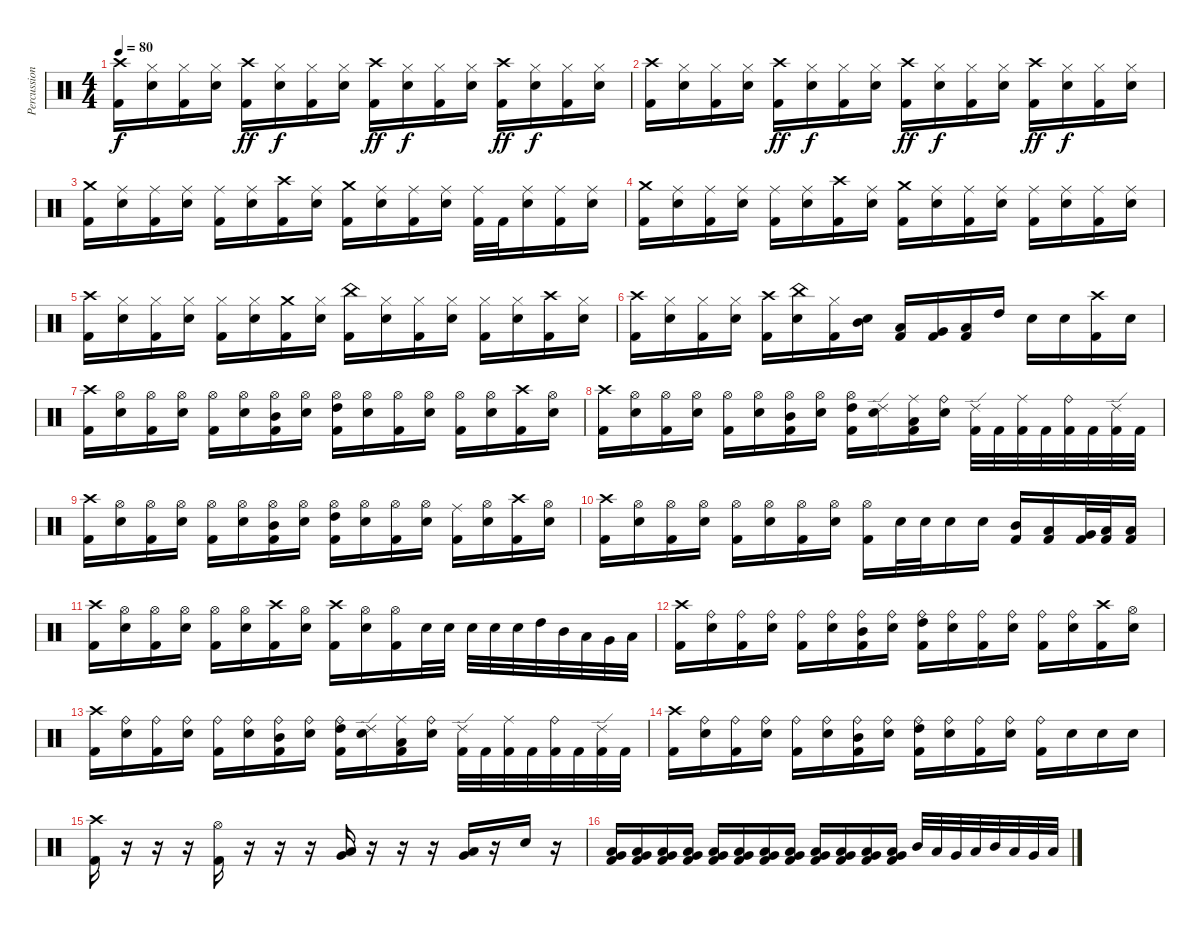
\track ("Percussion" "Percussion") {instrument percussion}
\staff {score}
\articulation defaults
\ts (4 4)
\tempo 80
\clef neutral
\ks c
("Crash high (hit)" "Kick (hit) 2").16{dy f} ("Hi-Hat (closed)" "Snare (hit) 2").16 ("Hi-Hat (closed)" "Kick (hit) 2").16 ("Hi-Hat (closed)" "Snare (hit) 2").16 ("Crash high (hit)" "Kick (hit) 2").16{dy ff} ("Hi-Hat (closed)" "Snare (hit) 2").16{dy f} ("Hi-Hat (closed)" "Kick (hit) 2").16 ("Hi-Hat (closed)" "Snare (hit) 2").16 ("Crash high (hit)" "Kick (hit) 2").16{dy ff} ("Hi-Hat (closed)" "Snare (hit) 2").16{dy f} ("Hi-Hat (closed)" "Kick (hit) 2").16 ("Hi-Hat (closed)" "Snare (hit) 2").16 ("Crash high (hit)" "Kick (hit) 2").16{dy ff} ("Hi-Hat (closed)" "Snare (hit) 2").16{dy f} ("Hi-Hat (closed)" "Kick (hit) 2").16 ("Hi-Hat (closed)" "Snare (hit) 2").16 |
("Crash high (hit)" "Kick (hit) 2").16 ("Hi-Hat (closed)" "Snare (hit) 2").16 ("Hi-Hat (closed)" "Kick (hit) 2").16 ("Hi-Hat (closed)" "Snare (hit) 2").16 ("Crash high (hit)" "Kick (hit) 2").16{dy ff} ("Hi-Hat (closed)" "Snare (hit) 2").16{dy f} ("Hi-Hat (closed)" "Kick (hit) 2").16 ("Hi-Hat (closed)" "Snare (hit) 2").16 ("Crash high (hit)" "Kick (hit) 2").16{dy ff} ("Hi-Hat (closed)" "Snare (hit) 2").16{dy f} ("Hi-Hat (closed)" "Kick (hit) 2").16 ("Hi-Hat (closed)" "Snare (hit) 2").16 ("Crash high (hit)" "Kick (hit) 2").16{dy ff} ("Hi-Hat (closed)" "Snare (hit) 2").16{dy f} ("Hi-Hat (closed)" "Kick (hit) 2").16 ("Hi-Hat (closed)" "Snare (hit) 2").16 |
("Crash medium (hit)" "Kick (hit) 2").16 ("Ride (middle)" "Snare (hit) 2").16 ("Ride (middle)" "Kick (hit) 2").16 ("Ride (middle)" "Snare (hit) 2").16 ("Ride (middle)" "Kick (hit) 2").16 ("Ride (middle)" "Snare (hit) 2").16 ("Crash high (hit)" "Kick (hit) 2").16 ("Ride (middle)" "Snare (hit) 2").16 ("Crash medium (hit)" "Kick (hit) 2").16 ("Ride (middle)" "Snare (hit) 2").16 ("Ride (middle)" "Kick (hit) 2").16 ("Ride (middle)" "Snare (hit) 2").16 ("Ride (middle)" "Kick (hit) 2").32 "Kick (hit) 2".32 ("Ride (middle)" "Snare (hit) 2").16 ("Ride (middle)" "Kick (hit) 2").16 ("Ride (middle)" "Snare (hit) 2").16 |
("Crash medium (hit)" "Kick (hit) 2").16 ("Ride (middle)" "Snare (hit) 2").16 ("Ride (middle)" "Kick (hit) 2").16 ("Ride (middle)" "Snare (hit) 2").16 ("Ride (middle)" "Kick (hit) 2").16 ("Ride (middle)" "Snare (hit) 2").16 ("Crash high (hit)" "Kick (hit) 2").16 ("Ride (middle)" "Snare (hit) 2").16 ("Crash medium (hit)" "Kick (hit) 2").16 ("Ride (middle)" "Snare (hit) 2").16 ("Ride (middle)" "Kick (hit) 2").16 ("Ride (middle)" "Snare (hit) 2").16 ("Ride (middle)" "Kick (hit) 2").16 ("Ride (middle)" "Snare (hit) 2").16 ("Ride (middle)" "Kick (hit) 2").16 ("Ride (middle)" "Snare (hit) 2").16 |
("Crash high (hit)" "Kick (hit) 2").16 ("Hi-Hat (closed)" "Snare (hit) 2").16 ("Hi-Hat (closed)" "Kick (hit) 2").16 ("Hi-Hat (closed)" "Snare (hit) 2").16 ("Hi-Hat (closed)" "Kick (hit) 2").16 ("Hi-Hat (closed)" "Snare (hit) 2").16 ("Crash medium (hit)" "Kick (hit) 2").16 ("Hi-Hat (closed)" "Snare (hit) 2").16 ("China (hit)" "Kick (hit) 2").16 ("Hi-Hat (closed)" "Snare (hit) 2").16 ("Hi-Hat (closed)" "Kick (hit) 2").16 ("Hi-Hat (closed)" "Snare (hit) 2").16 ("Hi-Hat (closed)" "Kick (hit) 2").16 ("Hi-Hat (closed)" "Snare (hit) 2").16 ("Crash high (hit)" "Kick (hit) 2").16 ("Hi-Hat (closed)" "Snare (hit) 2").16 |
("Crash high (hit)" "Kick (hit) 2").16 ("Hi-Hat (closed)" "Snare (hit) 2").16 ("Hi-Hat (closed)" "Kick (hit) 2").16 ("Hi-Hat (closed)" "Snare (hit) 2").16 ("Crash high (hit)" "Kick (hit) 2").16 ("China (hit)" "Snare (hit) 2").16 ("Hi-Hat (closed)" "Kick (hit) 2").16 ("Mid Tom (hit)" "Snare (hit) 2").16 ("Low Tom (hit)" "Kick (hit) 2").16 ("Very Low Tom (hit)" "Kick (hit) 2").16 ("Low Floor Tom (hit)" "Kick (hit) 2").16 "High Tom (hit)".16 "Snare (hit) 2".16 "Snare (hit) 2".16 ("Crash high (hit)" "Kick (hit) 2").16 "Snare (hit) 2".16 |
("Crash high (hit)" "Kick (hit) 2").16 ("Hi-Hat (open)" "Snare (hit) 2").16 ("Hi-Hat (open)" "Kick (hit) 2").16 ("Hi-Hat (open)" "Snare (hit) 2").16 ("Hi-Hat (open)" "Kick (hit) 2").16 ("Hi-Hat (open)" "Snare (hit) 2").16 ("Hi-Hat (open)" "Mid Tom (hit)" "Kick (hit) 2").16 ("Hi-Hat (open)" "Snare (hit) 2").16 ("Hi-Hat (open)" "High Tom (hit)" "Kick (hit) 2").16 ("Hi-Hat (open)" "Snare (hit) 2").16 ("Hi-Hat (open)" "Kick (hit) 2").16 ("Hi-Hat (open)" "Snare (hit) 2").16 ("Hi-Hat (open)" "Kick (hit) 2").16 ("Hi-Hat (open)" "Snare (hit) 2").16 ("Crash high (hit)" "Kick (hit) 2").16 ("Hi-Hat (open)" "Snare (hit) 2").16 |
("Crash high (hit)" "Kick (hit) 2").16 ("Hi-Hat (open)" "Snare (hit) 2").16 ("Hi-Hat (open)" "Kick (hit) 2").16 ("Hi-Hat (open)" "Snare (hit) 2").16 ("Hi-Hat (open)" "Kick (hit) 2").16 ("Hi-Hat (open)" "Snare (hit) 2").16 ("Hi-Hat (open)" "Mid Tom (hit)" "Kick (hit) 2").16 ("Hi-Hat (open)" "Snare (hit) 2").16 ("Hi-Hat (open)" "High Tom (hit)" "Kick (hit) 2").16 ("Ride (edge) 2" "Snare (hit) 2").16 ("Ride (middle)" "Low Tom (hit)" "Kick (hit) 2").16 ("Ride (bell)" "Snare (hit) 2").16 ("Ride (edge) 2" "Kick (hit) 2").32 "Kick (hit) 2".32 ("Ride (middle)" "Kick (hit) 2").32 "Kick (hit) 2".32 ("Ride (bell)" "Kick (hit) 2").32 "Kick (hit) 2".32 ("Ride (edge) 2" "Kick (hit) 2").32 "Kick (hit) 2".32 |
("Crash high (hit)" "Kick (hit) 2").16 ("Hi-Hat (open)" "Snare (hit) 2").16 ("Hi-Hat (open)" "Kick (hit) 2").16 ("Hi-Hat (open)" "Snare (hit) 2").16 ("Hi-Hat (open)" "Kick (hit) 2").16 ("Hi-Hat (open)" "Snare (hit) 2").16 ("Hi-Hat (open)" "Mid Tom (hit)" "Kick (hit) 2").16 ("Hi-Hat (open)" "Snare (hit) 2").16 ("Hi-Hat (open)" "High Tom (hit)" "Kick (hit) 2").16 ("Hi-Hat (open)" "Snare (hit) 2").16 ("Hi-Hat (open)" "Kick (hit) 2").16 ("Hi-Hat (open)" "Snare (hit) 2").16 ("Ride (middle)" "Kick (hit) 2").16 ("Hi-Hat (open)" "Snare (hit) 2").16 ("Crash high (hit)" "Kick (hit) 2").16 ("Hi-Hat (open)" "Snare (hit) 2").16 |
("Crash high (hit)" "Kick (hit) 2").16 ("Hi-Hat (open)" "Snare (hit) 2").16 ("Hi-Hat (open)" "Kick (hit) 2").16 ("Hi-Hat (open)" "Snare (hit) 2").16 ("Hi-Hat (open)" "Kick (hit) 2").16 ("Hi-Hat (open)" "Snare (hit) 2").16 ("Hi-Hat (open)" "Kick (hit) 2").16 ("Hi-Hat (open)" "Snare (hit) 2").16 ("Hi-Hat (open)" "Kick (hit) 2").16 "Snare (hit) 2".32 "Snare (hit) 2".32 "Snare (hit) 2".16 "Snare (hit) 2".16 ("Mid Tom (hit)" "Kick (hit) 2").16 ("Low Tom (hit)" "Kick (hit) 2").16 ("Very Low Tom (hit)" "Kick (hit) 2").32 ("Low Floor Tom (hit)" "Kick (hit) 2").32 ("Low Floor Tom (hit)" "Kick (hit) 2").16 |
("Crash high (hit)" "Kick (hit) 2").16 ("Hi-Hat (open)" "Snare (hit) 2").16 ("Hi-Hat (open)" "Kick (hit) 2").16 ("Hi-Hat (open)" "Snare (hit) 2").16 ("Hi-Hat (open)" "Kick (hit) 2").16 ("Hi-Hat (open)" "Snare (hit) 2").16 ("Crash high (hit)" "Kick (hit) 2").16 ("Hi-Hat (open)" "Snare (hit) 2").16 ("Crash high (hit)" "Kick (hit) 2").16 ("Hi-Hat (open)" "Snare (hit) 2").16 ("Hi-Hat (open)" "Kick (hit) 2").16 "Snare (hit) 2".32 "Snare (hit) 2".32 "Snare (hit) 2".32 "Snare (hit) 2".32 "Snare (hit) 2".32 "High Tom (hit)".32 "Mid Tom (hit)".32 "Low Tom (hit)".32 "Very Low Tom (hit)".32 "Low Floor Tom (hit)".32 |
("Crash high (hit)" "Kick (hit) 2").16 ("Ride (bell)" "Snare (hit) 2").16 ("Ride (bell)" "Kick (hit) 2").16 ("Ride (bell)" "Snare (hit) 2").16 ("Ride (bell)" "Kick (hit) 2").16 ("Ride (bell)" "Snare (hit) 2").16 ("Ride (bell)" "Mid Tom (hit)" "Kick (hit) 2").16 ("Ride (bell)" "Snare (hit) 2").16 ("Ride (bell)" "High Tom (hit)" "Kick (hit) 2").16 ("Ride (bell)" "Snare (hit) 2").16 ("Ride (bell)" "Kick (hit) 2").16 ("Ride (bell)" "Snare (hit) 2").16 ("Ride (bell)" "Kick (hit) 2").16 ("Ride (bell)" "Snare (hit) 2").16 ("Crash high (hit)" "Kick (hit) 2").16 ("Hi-Hat (open)" "Snare (hit) 2").16 |
("Crash high (hit)" "Kick (hit) 2").16 ("Ride (bell)" "Snare (hit) 2").16 ("Ride (bell)" "Kick (hit) 2").16 ("Ride (bell)" "Snare (hit) 2").16 ("Ride (bell)" "Kick (hit) 2").16 ("Ride (bell)" "Snare (hit) 2").16 ("Ride (bell)" "Mid Tom (hit)" "Kick (hit) 2").16 ("Ride (bell)" "Snare (hit) 2").16 ("Ride (bell)" "High Tom (hit)" "Kick (hit) 2").16 ("Ride (edge) 2" "Snare (hit) 2").16 ("Ride (middle)" "Low Tom (hit)" "Kick (hit) 2").16 ("Ride (bell)" "Snare (hit) 2").16 ("Ride (edge) 2" "Kick (hit) 2").32 "Kick (hit) 2".32 ("Ride (middle)" "Kick (hit) 2").32 "Kick (hit) 2".32 ("Ride (bell)" "Kick (hit) 2").32 "Kick (hit) 2".32 ("Ride (edge) 2" "Kick (hit) 2").32 "Kick (hit) 2".32 |
("Crash high (hit)" "Kick (hit) 2").16 ("Ride (bell)" "Snare (hit) 2").16 ("Ride (bell)" "Kick (hit) 2").16 ("Ride (bell)" "Snare (hit) 2").16 ("Ride (bell)" "Kick (hit) 2").16 ("Ride (bell)" "Snare (hit) 2").16 ("Ride (bell)" "Mid Tom (hit)" "Kick (hit) 2").16 ("Ride (bell)" "Snare (hit) 2").16 ("Ride (bell)" "High Tom (hit)" "Kick (hit) 2").16 ("Ride (bell)" "Snare (hit) 2").16 ("Ride (bell)" "Kick (hit) 2").16 ("Ride (bell)" "Snare (hit) 2").16 ("Ride (bell)" "Kick (hit) 2").16 "Snare (hit) 2".16 "Snare (hit) 2".16 "Snare (hit) 2".16 |
("Crash high (hit)" "Kick (hit) 2").16 r.16 r.16 r.16 ("Hi-Hat (open)" "Kick (hit) 2").16 r.16 r.16 r.16 ("Very Low Tom (hit)" "Low Floor Tom (hit)").16 r.16 r.16 r.16 ("Very Low Tom (hit)" "Low Floor Tom (hit)").16 r.16 "Snare (hit) 2".16 r.16 |
("Low Floor Tom (hit)" "Very Low Tom (hit)" "Kick (hit) 2").16 ("Low Floor Tom (hit)" "Very Low Tom (hit)" "Kick (hit) 2").16 ("Low Floor Tom (hit)" "Very Low Tom (hit)" "Kick (hit) 2").16 ("Low Floor Tom (hit)" "Very Low Tom (hit)" "Kick (hit) 2").16 ("Low Floor Tom (hit)" "Very Low Tom (hit)" "Kick (hit) 2").16 ("Low Floor Tom (hit)" "Very Low Tom (hit)" "Kick (hit) 2").16 ("Low Floor Tom (hit)" "Very Low Tom (hit)" "Kick (hit) 2").16 ("Low Floor Tom (hit)" "Very Low Tom (hit)" "Kick (hit) 2").16 ("Low Floor Tom (hit)" "Very Low Tom (hit)" "Kick (hit) 2").16 ("Low Floor Tom (hit)" "Very Low Tom (hit)" "Kick (hit) 2").16 ("Low Floor Tom (hit)" "Very Low Tom (hit)" "Kick (hit) 2").16 ("Low Floor Tom (hit)" "Very Low Tom (hit)" "Kick (hit) 2").16 "Mid Tom (hit)".32 "Low Tom (hit)".32 "Very Low Tom (hit)".32 "Low Floor Tom (hit)".32 "Mid Tom (hit)".32 "Low Tom (hit)".32 "Very Low Tom (hit)".32 "Low Floor Tom (hit)".32
